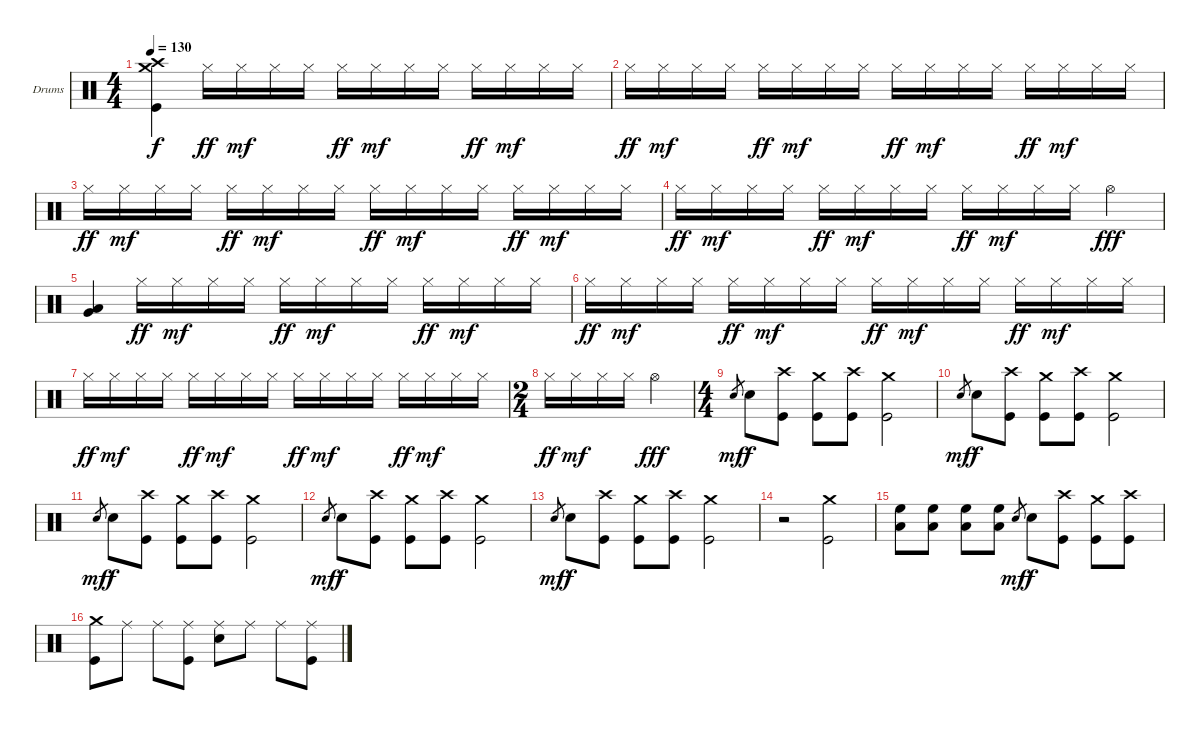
\bracketExtendMode groupsimilarinstruments
\firstSystemTrackNameOrientation horizontal
\otherSystemsTrackNameOrientation horizontal
\track ("Nick Menza" "Drums") {instrument percussion}
\staff {score}
\articulation defaults
\ts (4 4)
\tempo 130
\clef neutral
\ks c
("Crash high (hit)" "Crash medium (hit)" "Kick (hit)").4{dy f} "Hi-Hat (closed)".16{dy ff} "Hi-Hat (closed)".16{dy mf} "Hi-Hat (closed)".16 "Hi-Hat (closed)".16 "Hi-Hat (closed)".16{dy ff} "Hi-Hat (closed)".16{dy mf} "Hi-Hat (closed)".16 "Hi-Hat (closed)".16 "Hi-Hat (closed)".16{dy ff} "Hi-Hat (closed)".16{dy mf} "Hi-Hat (closed)".16 "Hi-Hat (closed)".16 |
"Hi-Hat (closed)".16{dy ff} "Hi-Hat (closed)".16{dy mf} "Hi-Hat (closed)".16 "Hi-Hat (closed)".16 "Hi-Hat (closed)".16{dy ff} "Hi-Hat (closed)".16{dy mf} "Hi-Hat (closed)".16 "Hi-Hat (closed)".16 "Hi-Hat (closed)".16{dy ff} "Hi-Hat (closed)".16{dy mf} "Hi-Hat (closed)".16 "Hi-Hat (closed)".16 "Hi-Hat (closed)".16{dy ff} "Hi-Hat (closed)".16{dy mf} "Hi-Hat (closed)".16 "Hi-Hat (closed)".16 |
"Hi-Hat (closed)".16{dy ff} "Hi-Hat (closed)".16{dy mf} "Hi-Hat (closed)".16 "Hi-Hat (closed)".16 "Hi-Hat (closed)".16{dy ff} "Hi-Hat (closed)".16{dy mf} "Hi-Hat (closed)".16 "Hi-Hat (closed)".16 "Hi-Hat (closed)".16{dy ff} "Hi-Hat (closed)".16{dy mf} "Hi-Hat (closed)".16 "Hi-Hat (closed)".16 "Hi-Hat (closed)".16{dy ff} "Hi-Hat (closed)".16{dy mf} "Hi-Hat (closed)".16 "Hi-Hat (closed)".16 |
"Hi-Hat (closed)".16{dy ff} "Hi-Hat (closed)".16{dy mf} "Hi-Hat (closed)".16 "Hi-Hat (closed)".16 "Hi-Hat (closed)".16{dy ff} "Hi-Hat (closed)".16{dy mf} "Hi-Hat (closed)".16 "Hi-Hat (closed)".16 "Hi-Hat (closed)".16{dy ff} "Hi-Hat (closed)".16{dy mf} "Hi-Hat (closed)".16 "Hi-Hat (closed)".16 "Hi-Hat (open)".4{dy fff} |
("Low Tom (hit)" "Very Low Tom (hit)").4 "Hi-Hat (closed)".16{dy ff} "Hi-Hat (closed)".16{dy mf} "Hi-Hat (closed)".16 "Hi-Hat (closed)".16 "Hi-Hat (closed)".16{dy ff} "Hi-Hat (closed)".16{dy mf} "Hi-Hat (closed)".16 "Hi-Hat (closed)".16 "Hi-Hat (closed)".16{dy ff} "Hi-Hat (closed)".16{dy mf} "Hi-Hat (closed)".16 "Hi-Hat (closed)".16 |
"Hi-Hat (closed)".16{dy ff} "Hi-Hat (closed)".16{dy mf} "Hi-Hat (closed)".16 "Hi-Hat (closed)".16 "Hi-Hat (closed)".16{dy ff} "Hi-Hat (closed)".16{dy mf} "Hi-Hat (closed)".16 "Hi-Hat (closed)".16 "Hi-Hat (closed)".16{dy ff} "Hi-Hat (closed)".16{dy mf} "Hi-Hat (closed)".16 "Hi-Hat (closed)".16 "Hi-Hat (closed)".16{dy ff} "Hi-Hat (closed)".16{dy mf} "Hi-Hat (closed)".16 "Hi-Hat (closed)".16 |
"Hi-Hat (closed)".16{dy ff} "Hi-Hat (closed)".16{dy mf} "Hi-Hat (closed)".16 "Hi-Hat (closed)".16 "Hi-Hat (closed)".16{dy ff} "Hi-Hat (closed)".16{dy mf} "Hi-Hat (closed)".16 "Hi-Hat (closed)".16 "Hi-Hat (closed)".16{dy ff} "Hi-Hat (closed)".16{dy mf} "Hi-Hat (closed)".16 "Hi-Hat (closed)".16 "Hi-Hat (closed)".16{dy ff} "Hi-Hat (closed)".16{dy mf} "Hi-Hat (closed)".16 "Hi-Hat (closed)".16 |
\ts (2 4)
"Hi-Hat (closed)".16{dy ff} "Hi-Hat (closed)".16{dy mf} "Hi-Hat (closed)".16 "Hi-Hat (closed)".16 "Hi-Hat (open)".4{dy fff} |
\ts (4 4)
"Snare (hit) 2".8{gr dy mf} "Snare (hit) 2".8{dy f} ("Crash high (hit)" "Kick (hit)").8 ("Crash medium (hit)" "Kick (hit)").8 ("Crash high (hit)" "Kick (hit)").8 ("Crash medium (hit)" "Kick (hit)").2 |
"Snare (hit) 2".8{gr dy mf} "Snare (hit) 2".8{dy f} ("Crash high (hit)" "Kick (hit)").8 ("Crash medium (hit)" "Kick (hit)").8 ("Crash high (hit)" "Kick (hit)").8 ("Crash medium (hit)" "Kick (hit)").2 |
"Snare (hit) 2".8{gr dy mf} "Snare (hit) 2".8{dy f} ("Crash high (hit)" "Kick (hit)").8 ("Crash medium (hit)" "Kick (hit)").8 ("Crash high (hit)" "Kick (hit)").8 ("Crash medium (hit)" "Kick (hit)").2 |
"Snare (hit) 2".8{gr dy mf} "Snare (hit) 2".8{dy f} ("Crash high (hit)" "Kick (hit)").8 ("Crash medium (hit)" "Kick (hit)").8 ("Crash high (hit)" "Kick (hit)").8 ("Crash medium (hit)" "Kick (hit)").2 |
"Snare (hit) 2".8{gr dy mf} "Snare (hit) 2".8{dy f} ("Crash high (hit)" "Kick (hit)").8 ("Crash medium (hit)" "Kick (hit)").8 ("Crash high (hit)" "Kick (hit)").8 ("Crash medium (hit)" "Kick (hit)").2 |
r.2 ("Crash medium (hit)" "Kick (hit)").2 |
("High Floor Tom (hit)" "Low Tom (hit)").8 ("High Floor Tom (hit)" "Low Tom (hit)").8 ("High Floor Tom (hit)" "Low Tom (hit)").8 ("High Floor Tom (hit)" "Low Tom (hit)").8 "Snare (hit) 2".8{gr dy mf} "Snare (hit) 2".8{dy f} ("Crash high (hit)" "Kick (hit)").8 ("Crash medium (hit)" "Kick (hit)").8 ("Crash high (hit)" "Kick (hit)").8 |
("Crash medium (hit)" "Kick (hit)").8 "Ride (middle)".8 "Ride (middle)".8 ("Ride (middle)" "Kick (hit)").8 ("Ride (middle)" "Snare (hit) 2").8 "Ride (middle)".8 "Ride (middle)".8 ("Ride (middle)" "Kick (hit)").8
